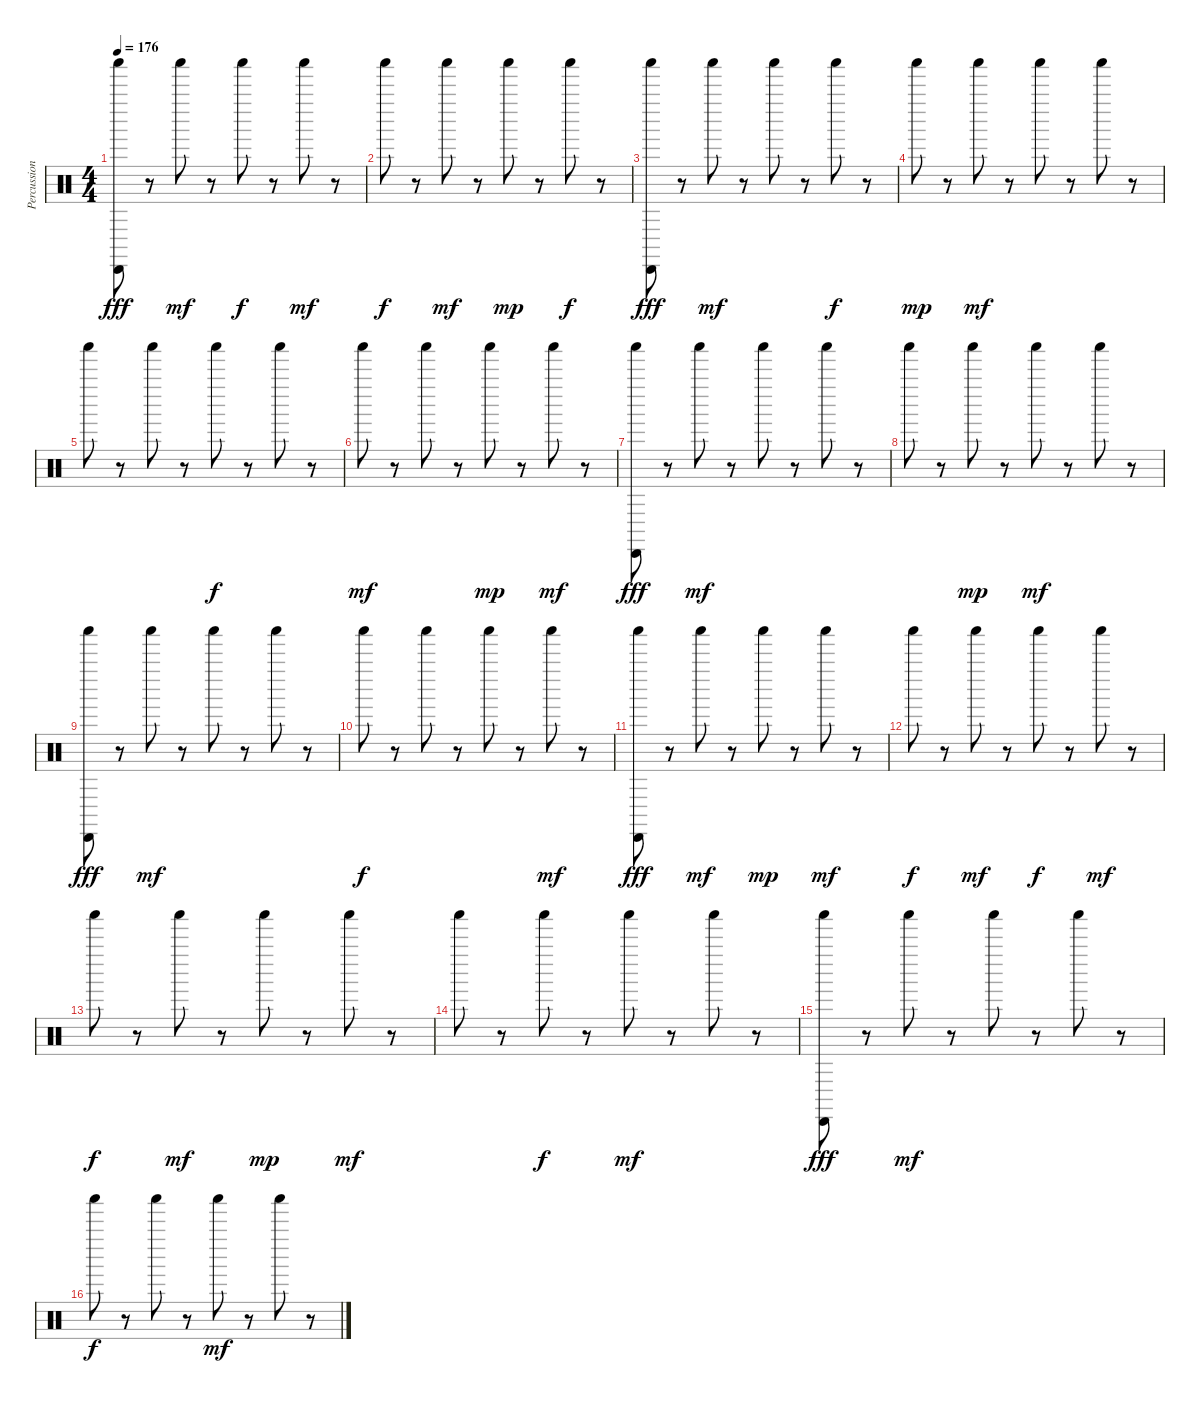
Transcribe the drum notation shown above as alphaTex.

\track ("Percussion" "Percussion") {instrument percussion}
\staff {score}
\articulation defaults
\ts (4 4)
\tempo 176
\clef neutral
\ks c
("Shaker (hit)" "Cabasa (hit)").8{dy fff} r.8 "Shaker (hit)".8{dy mf} r.8 "Shaker (hit)".8{dy f} r.8 "Shaker (hit)".8{dy mf} r.8 |
"Shaker (hit)".8{dy f} r.8 "Shaker (hit)".8{dy mf} r.8 "Shaker (hit)".8{dy mp} r.8 "Shaker (hit)".8{dy f} r.8 |
("Shaker (hit)" "Cabasa (hit)").8{dy fff} r.8 "Shaker (hit)".8{dy mf} r.8 "Shaker (hit)".8 r.8 "Shaker (hit)".8{dy f} r.8 |
"Shaker (hit)".8{dy mp} r.8 "Shaker (hit)".8{dy mf} r.8 "Shaker (hit)".8 r.8 "Shaker (hit)".8 r.8 |
"Shaker (hit)".8 r.8 "Shaker (hit)".8 r.8 "Shaker (hit)".8{dy f} r.8 "Shaker (hit)".8 r.8 |
"Shaker (hit)".8{dy mf} r.8 "Shaker (hit)".8 r.8 "Shaker (hit)".8{dy mp} r.8 "Shaker (hit)".8{dy mf} r.8 |
("Shaker (hit)" "Cabasa (hit)").8{dy fff} r.8 "Shaker (hit)".8{dy mf} r.8 "Shaker (hit)".8 r.8 "Shaker (hit)".8 r.8 |
"Shaker (hit)".8 r.8 "Shaker (hit)".8{dy mp} r.8 "Shaker (hit)".8{dy mf} r.8 "Shaker (hit)".8 r.8 |
("Shaker (hit)" "Cabasa (hit)").8{dy fff} r.8 "Shaker (hit)".8{dy mf} r.8 "Shaker (hit)".8 r.8 "Shaker (hit)".8 r.8 |
"Shaker (hit)".8{dy f} r.8 "Shaker (hit)".8 r.8 "Shaker (hit)".8 r.8 "Shaker (hit)".8{dy mf} r.8 |
("Shaker (hit)" "Cabasa (hit)").8{dy fff} r.8 "Shaker (hit)".8{dy mf} r.8 "Shaker (hit)".8{dy mp} r.8 "Shaker (hit)".8{dy mf} r.8 |
"Shaker (hit)".8{dy f} r.8 "Shaker (hit)".8{dy mf} r.8 "Shaker (hit)".8{dy f} r.8 "Shaker (hit)".8{dy mf} r.8 |
"Shaker (hit)".8{dy f} r.8 "Shaker (hit)".8{dy mf} r.8 "Shaker (hit)".8{dy mp} r.8 "Shaker (hit)".8{dy mf} r.8 |
"Shaker (hit)".8 r.8 "Shaker (hit)".8{dy f} r.8 "Shaker (hit)".8{dy mf} r.8 "Shaker (hit)".8 r.8 |
("Shaker (hit)" "Cabasa (hit)").8{dy fff} r.8 "Shaker (hit)".8{dy mf} r.8 "Shaker (hit)".8 r.8 "Shaker (hit)".8 r.8 |
"Shaker (hit)".8{dy f} r.8 "Shaker (hit)".8 r.8 "Shaker (hit)".8{dy mf} r.8 "Shaker (hit)".8 r.8
